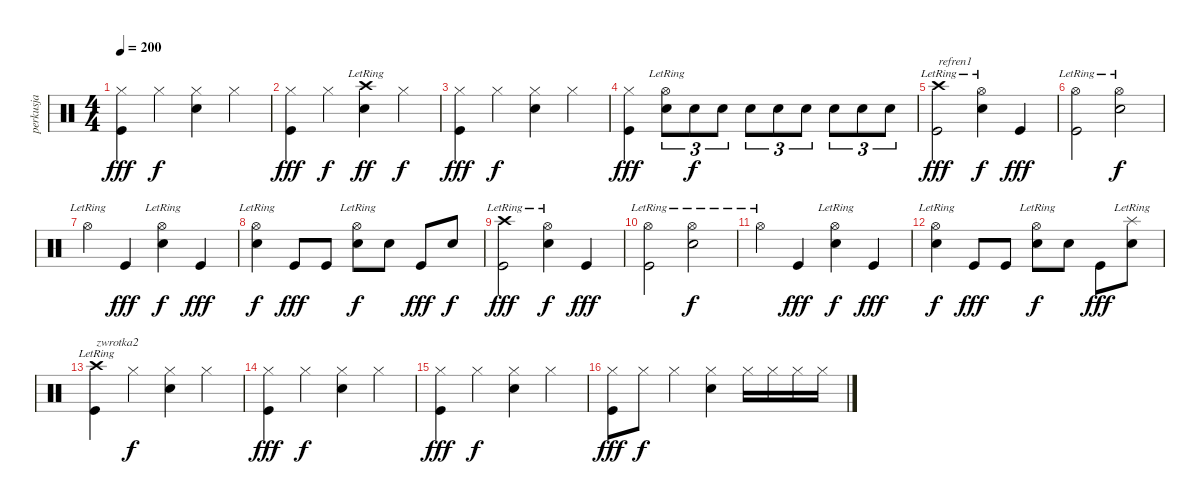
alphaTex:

\track ("perkusja" "perkusja") {instrument percussion}
\staff {score}
\articulation defaults
\ts (4 4)
\tempo 200
\clef neutral
\ks c
("Hi-Hat (closed)" "Kick (hit)").4{dy fff} "Hi-Hat (closed)".4{dy f} ("Hi-Hat (closed)" "Electric Snare (hit)").4 "Hi-Hat (closed)".4 |
("Hi-Hat (closed)" "Kick (hit)").4{dy fff} "Hi-Hat (closed)".4{dy f} ("Crash high (hit)"{lr} "Electric Snare (hit)").4{dy ff} "Hi-Hat (closed)".4{dy f} |
("Hi-Hat (closed)" "Kick (hit)").4{dy fff} "Hi-Hat (closed)".4{dy f} ("Hi-Hat (closed)" "Electric Snare (hit)").4 "Hi-Hat (closed)".4 |
("Hi-Hat (closed)" "Kick (hit)").4{dy fff} ("Hi-Hat (open)"{lr} "Electric Snare (hit)").8{tu (3 2)} "Electric Snare (hit)".8{tu (3 2) dy f} "Electric Snare (hit)".8{tu (3 2)} "Electric Snare (hit)".8{tu (3 2)} "Electric Snare (hit)".8{tu (3 2)} "Electric Snare (hit)".8{tu (3 2)} "Electric Snare (hit)".8{tu (3 2)} "Electric Snare (hit)".8{tu (3 2)} "Electric Snare (hit)".8{tu (3 2)} |
("Crash high (hit)"{lr} "Kick (hit)").2{txt "refren1" dy fff} ("Hi-Hat (open)"{lr} "Electric Snare (hit)").4{dy f} "Kick (hit)".4{dy fff} |
("Hi-Hat (open)"{lr} "Kick (hit)").2 ("Hi-Hat (open)"{lr} "Electric Snare (hit)").2{dy f} |
"Hi-Hat (open)"{lr}.4 "Kick (hit)".4{dy fff} ("Hi-Hat (open)"{lr} "Electric Snare (hit)").4{dy f} "Kick (hit)".4{dy fff} |
("Hi-Hat (open)"{lr} "Electric Snare (hit)").4{dy f} "Kick (hit)".8{dy fff} "Kick (hit)".8 ("Hi-Hat (open)"{lr} "Electric Snare (hit)").8{dy f} "Electric Snare (hit)".8 "Kick (hit)".8{dy fff} "Electric Snare (hit)".8{dy f} |
("Crash high (hit)"{lr} "Kick (hit)").2{dy fff} ("Hi-Hat (open)"{lr} "Electric Snare (hit)").4{dy f} "Kick (hit)".4{dy fff} |
("Hi-Hat (open)"{lr} "Kick (hit)").2 ("Hi-Hat (open)"{lr} "Electric Snare (hit)").2{dy f} |
"Hi-Hat (open)"{lr}.4 "Kick (hit)".4{dy fff} ("Hi-Hat (open)"{lr} "Electric Snare (hit)").4{dy f} "Kick (hit)".4{dy fff} |
("Hi-Hat (open)"{lr} "Electric Snare (hit)").4{dy f} "Kick (hit)".8{dy fff} "Kick (hit)".8 ("Hi-Hat (open)"{lr} "Electric Snare (hit)").8{dy f} "Electric Snare (hit)".8 "Kick (hit)".8{dy fff} ("Splash (hit)"{lr} "Electric Snare (hit)").8 |
("Crash high (hit)"{lr} "Kick (hit)").4{txt "zwrotka2"} "Hi-Hat (closed)".4{dy f} ("Hi-Hat (closed)" "Electric Snare (hit)").4 "Hi-Hat (closed)".4 |
("Hi-Hat (closed)" "Kick (hit)").4{dy fff} "Hi-Hat (closed)".4{dy f} ("Hi-Hat (closed)" "Electric Snare (hit)").4 "Hi-Hat (closed)".4 |
("Hi-Hat (closed)" "Kick (hit)").4{dy fff} "Hi-Hat (closed)".4{dy f} ("Hi-Hat (closed)" "Electric Snare (hit)").4 "Hi-Hat (closed)".4 |
("Hi-Hat (closed)" "Kick (hit)").8{dy fff} "Hi-Hat (closed)".8{dy f} "Hi-Hat (closed)".4 ("Hi-Hat (closed)" "Electric Snare (hit)").4 "Hi-Hat (closed)".16 "Hi-Hat (closed)".16 "Hi-Hat (closed)".16 "Hi-Hat (closed)".16
